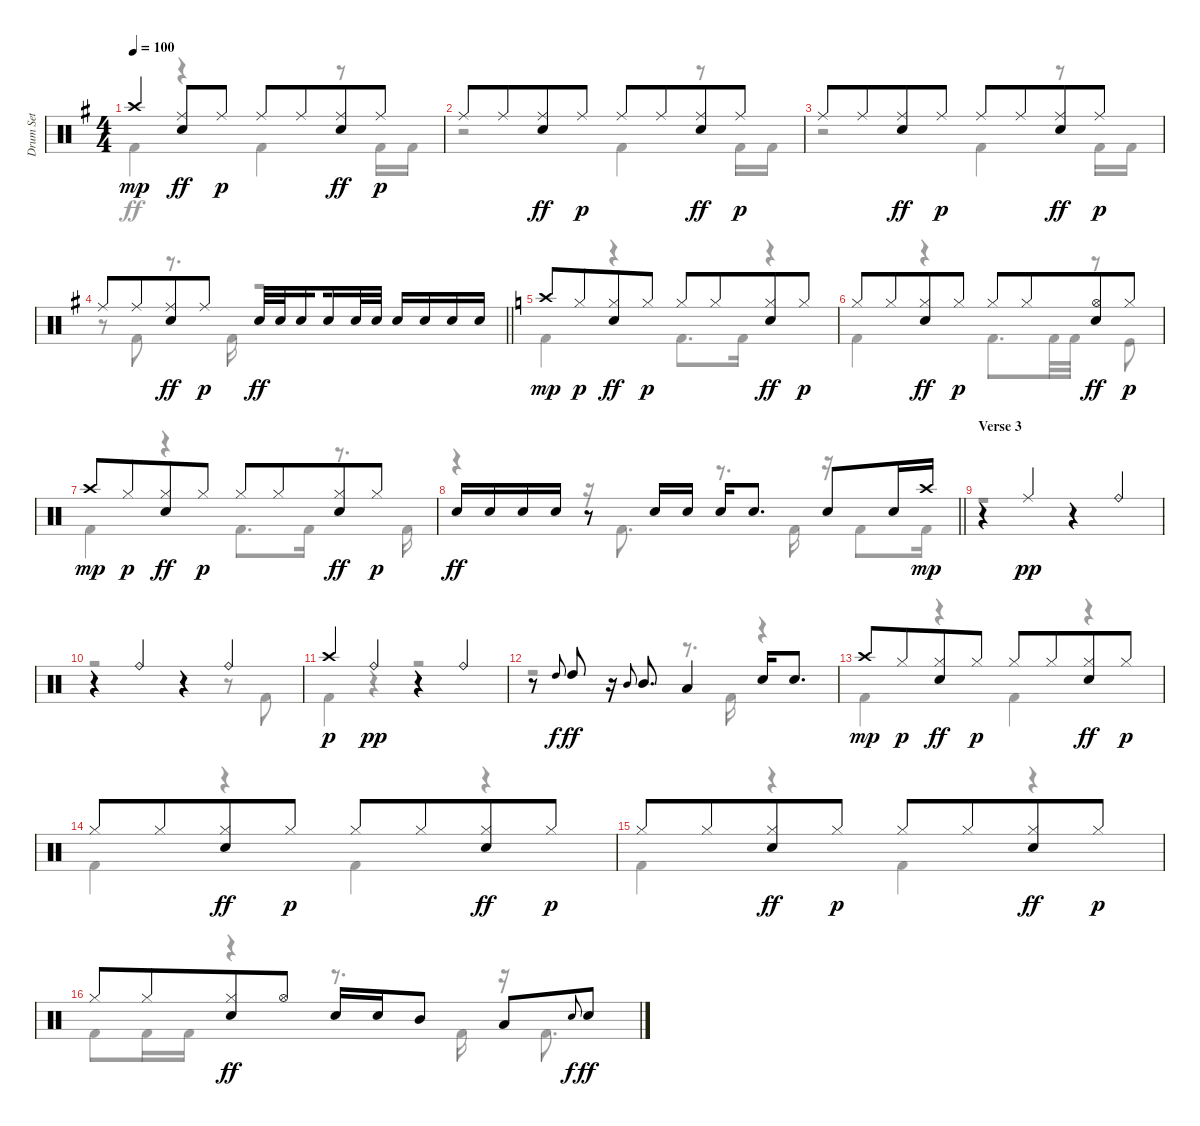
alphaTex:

\track ("Drum Set" "Drum Set") {instrument percussion}
\staff {score}
\articulation defaults
\voice
\ts (4 4)
\tempo 100
\clef neutral
\ks eminor "Crash high (hit)".4{dy mp}
("Ride (middle)" "Electric Snare (hit)").8{dy ff} "Ride (middle)".8{dy p} "Ride (middle)".8 "Ride (middle)".8{beam merge} ("Ride (middle)" "Electric Snare (hit)").8{dy ff} "Ride (middle)".8{dy p} |
"Ride (middle)".8 "Ride (middle)".8{beam merge} ("Ride (middle)" "Electric Snare (hit)").8{dy ff} "Ride (middle)".8{dy p} "Ride (middle)".8 "Ride (middle)".8{beam merge} ("Ride (middle)" "Electric Snare (hit)").8{dy ff} "Ride (middle)".8{dy p} |
"Ride (middle)".8 "Ride (middle)".8{beam merge} ("Ride (middle)" "Electric Snare (hit)").8{dy ff} "Ride (middle)".8{dy p} "Ride (middle)".8 "Ride (middle)".8{beam merge} ("Ride (middle)" "Electric Snare (hit)").8{dy ff} "Ride (middle)".8{dy p} |
\barLineRight lightlight "Ride (middle)".8 "Ride (middle)".8{beam merge}
("Ride (middle)" "Electric Snare (hit)").8{dy ff} "Ride (middle)".8{dy p} "Electric Snare (hit)".32{dy ff} "Electric Snare (hit)".32 "Electric Snare (hit)".16{beam splitsecondary} "Electric Snare (hit)".16 "Electric Snare (hit)".32 "Electric Snare (hit)".32 "Electric Snare (hit)".16 "Electric Snare (hit)".16 "Electric Snare (hit)".16 "Electric Snare (hit)".16 |
\ks c "Crash high (hit)".8{dy mp} "Hi-Hat (closed)".8{dy p beam merge}
("Hi-Hat (closed)" "Electric Snare (hit)").8{dy ff} "Hi-Hat (closed)".8{dy p} "Hi-Hat (closed)".8 "Hi-Hat (closed)".8{beam merge} ("Hi-Hat (closed)" "Electric Snare (hit)").8{dy ff} "Hi-Hat (closed)".8{dy p} |
"Hi-Hat (closed)".8 "Hi-Hat (closed)".8{beam merge} ("Hi-Hat (closed)" "Electric Snare (hit)").8{dy ff} "Hi-Hat (closed)".8{dy p} "Hi-Hat (closed)".8 "Hi-Hat (closed)".8{beam merge} ("Hi-Hat (open)" "Electric Snare (hit)").8{dy ff} "Hi-Hat (closed)".8{dy p} |
"Crash high (hit)".8{dy mp} "Hi-Hat (closed)".8{dy p beam merge} ("Hi-Hat (closed)" "Electric Snare (hit)").8{dy ff} "Hi-Hat (closed)".8{dy p} "Hi-Hat (closed)".8 "Hi-Hat (closed)".8{beam merge} ("Hi-Hat (closed)" "Electric Snare (hit)").8{dy ff} "Hi-Hat (closed)".8{dy p} |
\barLineRight lightlight "Electric Snare (hit)".16{dy ff} "Electric Snare (hit)".16 "Electric Snare (hit)".16 "Electric Snare (hit)".16
r.8 "Electric Snare (hit)".16 "Electric Snare (hit)".16 "Electric Snare (hit)".16 "Electric Snare (hit)".8{d} "Electric Snare (hit)".8 "Electric Snare (hit)".16 "Crash high (hit)".16{dy mp} |
\section ("" "Verse 3")
\ks aminor
r.4 "Ride (middle)".4{dy pp} r.4 "Ride (bell)".4 |
r.4 "Ride (bell)".4 r.4 "Ride (bell)".4 |
"Crash high (hit)".4{dy p} "Ride (bell)".4{dy pp} r.4 "Ride (bell)".4 |
r.8 "High Tom (hit)".8{gr onbeat dy f} "High Tom (hit)".8{dy ff} r.16 "Mid Tom (hit)".8{gr onbeat} "Mid Tom (hit)".8{d} "Low Tom (hit)".4 "Electric Snare (hit)".16 "Electric Snare (hit)".8{d} |
"Crash high (hit)".8{dy mp} "Hi-Hat (closed)".8{dy p beam merge} ("Hi-Hat (closed)" "Electric Snare (hit)").8{dy ff} "Hi-Hat (closed)".8{dy p} "Hi-Hat (closed)".8 "Hi-Hat (closed)".8{beam merge} ("Hi-Hat (closed)" "Electric Snare (hit)").8{dy ff} "Hi-Hat (closed)".8{dy p} |
"Hi-Hat (closed)".8 "Hi-Hat (closed)".8{beam merge} ("Hi-Hat (closed)" "Electric Snare (hit)").8{dy ff} "Hi-Hat (closed)".8{dy p} "Hi-Hat (closed)".8 "Hi-Hat (closed)".8{beam merge} ("Hi-Hat (closed)" "Electric Snare (hit)").8{dy ff} "Hi-Hat (closed)".8{dy p} |
"Hi-Hat (closed)".8 "Hi-Hat (closed)".8{beam merge} ("Hi-Hat (closed)" "Electric Snare (hit)").8{dy ff} "Hi-Hat (closed)".8{dy p} "Hi-Hat (closed)".8 "Hi-Hat (closed)".8{beam merge} ("Hi-Hat (closed)" "Electric Snare (hit)").8{dy ff} "Hi-Hat (closed)".8{dy p} |
"Hi-Hat (closed)".8 "Hi-Hat (closed)".8{beam merge} ("Hi-Hat (closed)" "Electric Snare (hit)").8{dy ff} "Hi-Hat (open)".8 "Electric Snare (hit)".16 "Electric Snare (hit)".16 "Mid Tom (hit)".8 "Low Tom (hit)".8 "Electric Snare (hit)".8{gr onbeat dy f} "Electric Snare (hit)".8{dy ff}
\voice
\clef neutral
\ottava regular
\simile none
\ks eminor "Kick (hit) 2".4{dy ff}
r.4 "Kick (hit) 2".4 r.8 "Kick (hit) 2".16 "Kick (hit) 2".16 |
r.2 "Kick (hit) 2".4 r.8 "Kick (hit) 2".16 "Kick (hit) 2".16 |
r.2 "Kick (hit) 2".4 r.8 "Kick (hit) 2".16 "Kick (hit) 2".16 |
\barLineRight lightlight
r.8 "Kick (hit) 2".8 r.8{d} "Kick (hit) 2".16 r.2 |
\ks c "Kick (hit) 2".4
r.4 "Kick (hit) 2".8{d} "Kick (hit) 2".16 r.4 |
"Kick (hit) 2".4 r.4 "Kick (hit) 2".8{d} "Kick (hit) 2".32 "Kick (hit) 2".32 r.8 "Kick (hit)".8 |
"Kick (hit) 2".4 r.4 "Kick (hit) 2".8{d} "Kick (hit) 2".16 r.8{d} "Kick (hit) 2".16 |
\barLineRight lightlight
r.4 r.16 "Kick (hit) 2".8{d} r.8{d} "Kick (hit) 2".16 r.16 "Kick (hit) 2".8 "Kick (hit) 2".16 |
\ks aminor
r.1 |
r.2 r.4 r.8 "Kick (hit) 2".8 |
"Kick (hit) 2".4 r.4 r.2 |
r.2 r.8{d} "Kick (hit) 2".16 r.4 |
"Kick (hit) 2".4 r.4 "Kick (hit) 2".4 r.4 |
"Kick (hit) 2".4 r.4 "Kick (hit) 2".4 r.4 |
"Kick (hit) 2".4 r.4 "Kick (hit) 2".4 r.4 |
"Kick (hit) 2".8 "Kick (hit) 2".16 "Kick (hit) 2".16 r.4 r.8{d} "Kick (hit) 2".16 r.16 "Kick (hit) 2".8{d}
